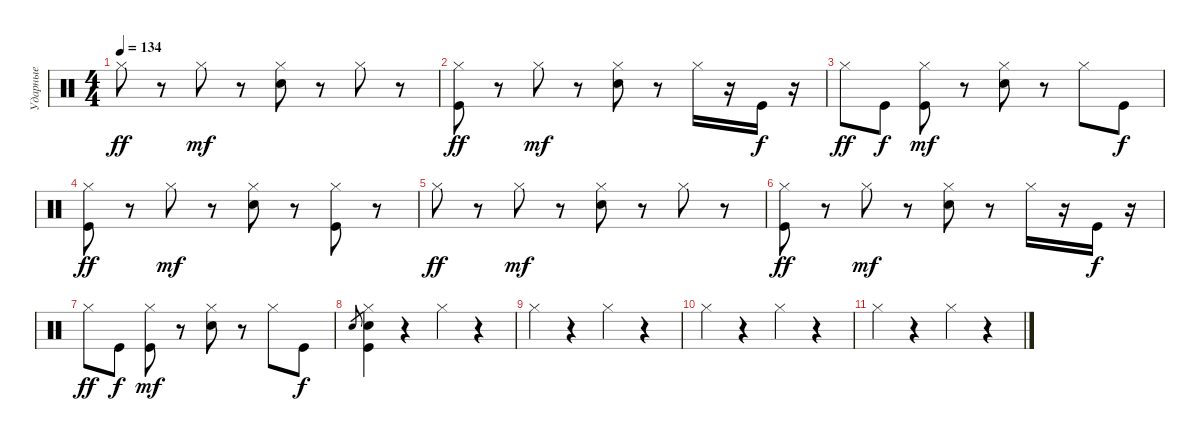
\track ("Ударные" "Ударные") {instrument percussion}
\staff {score}
\articulation defaults
\ts (4 4)
\tempo 134
\clef neutral
\ks c "Hi-Hat (closed)".8{dy ff}
r.8 "Hi-Hat (closed)".8{dy mf} r.8 ("Hi-Hat (closed)" "Snare (hit) 2").8 r.8 "Hi-Hat (closed)".8 r.8 |
("Kick (hit)" "Hi-Hat (closed)").8{dy ff} r.8 "Hi-Hat (closed)".8{dy mf} r.8 ("Hi-Hat (closed)" "Snare (hit) 2").8 r.8 "Hi-Hat (closed)".16 r.16 "Kick (hit)".16{dy f} r.16 |
"Hi-Hat (closed)".8{dy ff} "Kick (hit)".8{dy f} ("Hi-Hat (closed)" "Kick (hit)").8{dy mf} r.8 ("Hi-Hat (closed)" "Snare (hit) 2").8 r.8 "Hi-Hat (closed)".8 "Kick (hit)".8{dy f} |
("Kick (hit)" "Hi-Hat (closed)").8{dy ff} r.8 "Hi-Hat (closed)".8{dy mf} r.8 ("Hi-Hat (closed)" "Snare (hit) 2").8 r.8 ("Hi-Hat (closed)" "Kick (hit)").8 r.8 |
"Hi-Hat (closed)".8{dy ff} r.8 "Hi-Hat (closed)".8{dy mf} r.8 ("Hi-Hat (closed)" "Snare (hit) 2").8 r.8 "Hi-Hat (closed)".8 r.8 |
("Kick (hit)" "Hi-Hat (closed)").8{dy ff} r.8 "Hi-Hat (closed)".8{dy mf} r.8 ("Hi-Hat (closed)" "Snare (hit) 2").8 r.8 "Hi-Hat (closed)".16 r.16 "Kick (hit)".16{dy f} r.16 |
"Hi-Hat (closed)".8{dy ff} "Kick (hit)".8{dy f} ("Hi-Hat (closed)" "Kick (hit)").8{dy mf} r.8 ("Hi-Hat (closed)" "Snare (hit) 2").8 r.8 "Hi-Hat (closed)".8 "Kick (hit)".8{dy f} |
"Snare (hit) 2".8{gr} ("Hi-Hat (closed)" "Snare (hit) 2" "Kick (hit)").4 r.4 "Hi-Hat (closed)".4 r.4 |
"Hi-Hat (closed)".4 r.4 "Hi-Hat (closed)".4 r.4 |
"Hi-Hat (closed)".4 r.4 "Hi-Hat (closed)".4 r.4 |
"Hi-Hat (closed)".4 r.4 "Hi-Hat (closed)".4 r.4
